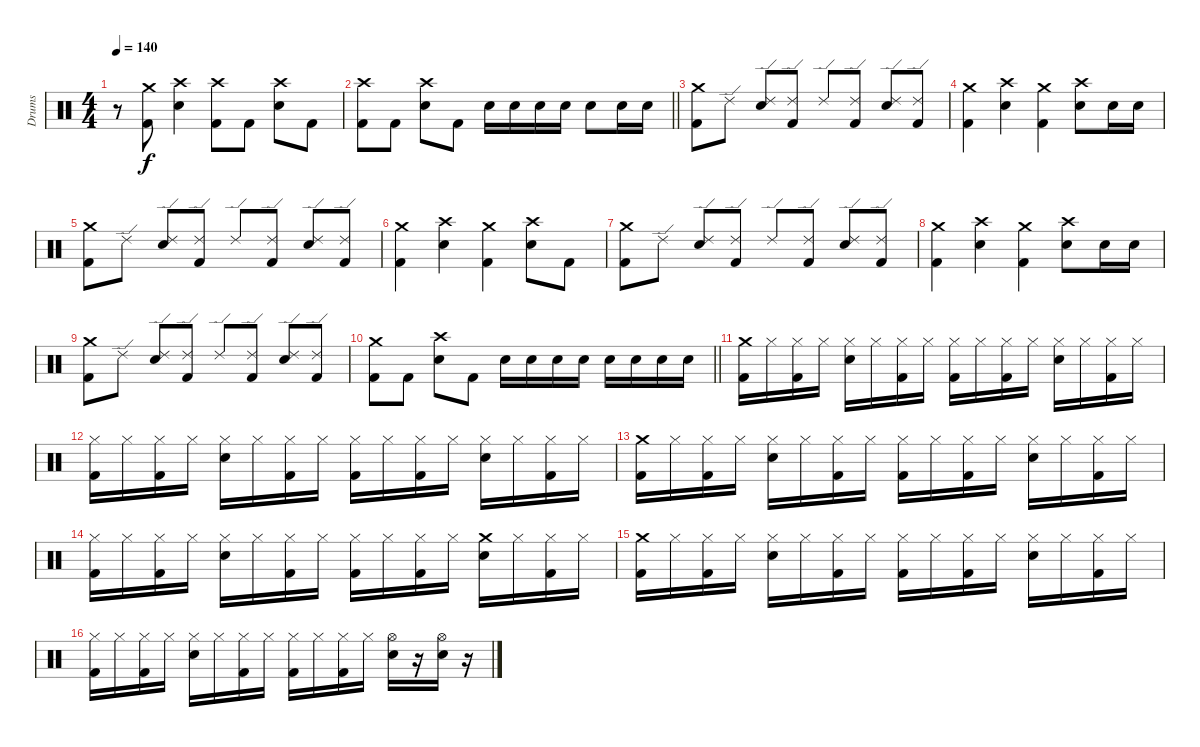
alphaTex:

\track ("Drums" "Drums") {instrument percussion}
\staff {score}
\articulation defaults
\ts (4 4)
\tempo 140
\clef neutral
\ks c
r.8{dy f} ("Crash medium (hit)" "Kick (hit) 2").8 ("Crash high (hit)" "Electric Snare (hit)").4 ("Crash high (hit)" "Kick (hit) 2").8 "Kick (hit) 2".8 ("Crash high (hit)" "Electric Snare (hit)").8 "Kick (hit) 2".8 |
\barLineRight lightlight
("Crash high (hit)" "Kick (hit) 2").8 "Kick (hit) 2".8 ("Crash high (hit)" "Electric Snare (hit)").8 "Kick (hit) 2".8 "Electric Snare (hit)".16 "Electric Snare (hit)".16 "Electric Snare (hit)".16 "Electric Snare (hit)".16 "Electric Snare (hit)".8 "Electric Snare (hit)".16 "Electric Snare (hit)".16 |
("Crash medium (hit)" "Kick (hit) 2").8 "Ride (edge) 2".8 ("Ride (edge) 2" "Electric Snare (hit)").8 ("Ride (edge) 2" "Kick (hit) 2").8 "Ride (edge) 2".8 ("Ride (edge) 2" "Kick (hit) 2").8 ("Ride (edge) 2" "Electric Snare (hit)").8 ("Ride (edge) 2" "Kick (hit) 2").8 |
("Crash medium (hit)" "Kick (hit) 2").4 ("Crash high (hit)" "Electric Snare (hit)").4 ("Crash medium (hit)" "Kick (hit) 2").4 ("Crash high (hit)" "Electric Snare (hit)").8 "Electric Snare (hit)".16 "Electric Snare (hit)".16 |
("Crash medium (hit)" "Kick (hit) 2").8 "Ride (edge) 2".8 ("Ride (edge) 2" "Electric Snare (hit)").8 ("Ride (edge) 2" "Kick (hit) 2").8 "Ride (edge) 2".8 ("Ride (edge) 2" "Kick (hit) 2").8 ("Ride (edge) 2" "Electric Snare (hit)").8 ("Ride (edge) 2" "Kick (hit) 2").8 |
("Crash medium (hit)" "Kick (hit) 2").4 ("Crash high (hit)" "Electric Snare (hit)").4 ("Crash medium (hit)" "Kick (hit) 2").4 ("Crash high (hit)" "Electric Snare (hit)").8 "Kick (hit) 2".8 |
("Crash medium (hit)" "Kick (hit) 2").8 "Ride (edge) 2".8 ("Ride (edge) 2" "Electric Snare (hit)").8 ("Ride (edge) 2" "Kick (hit) 2").8 "Ride (edge) 2".8 ("Ride (edge) 2" "Kick (hit) 2").8 ("Ride (edge) 2" "Electric Snare (hit)").8 ("Ride (edge) 2" "Kick (hit) 2").8 |
("Crash medium (hit)" "Kick (hit) 2").4 ("Crash high (hit)" "Electric Snare (hit)").4 ("Crash medium (hit)" "Kick (hit) 2").4 ("Crash high (hit)" "Electric Snare (hit)").8 "Electric Snare (hit)".16 "Electric Snare (hit)".16 |
("Crash medium (hit)" "Kick (hit) 2").8 "Ride (edge) 2".8 ("Ride (edge) 2" "Electric Snare (hit)").8 ("Ride (edge) 2" "Kick (hit) 2").8 "Ride (edge) 2".8 ("Ride (edge) 2" "Kick (hit) 2").8 ("Ride (edge) 2" "Electric Snare (hit)").8 ("Ride (edge) 2" "Kick (hit) 2").8 |
\barLineRight lightlight
("Crash medium (hit)" "Kick (hit) 2").8 "Kick (hit) 2".8 ("Crash high (hit)" "Electric Snare (hit)").8 "Kick (hit) 2".8 "Electric Snare (hit)".16 "Electric Snare (hit)".16 "Electric Snare (hit)".16 "Electric Snare (hit)".16 "Electric Snare (hit)".16 "Electric Snare (hit)".16 "Electric Snare (hit)".16 "Electric Snare (hit)".16 |
("Crash medium (hit)" "Kick (hit) 2").16 "Hi-Hat (closed)".16 ("Hi-Hat (closed)" "Kick (hit) 2").16 "Hi-Hat (closed)".16 ("Hi-Hat (closed)" "Electric Snare (hit)").16 "Hi-Hat (closed)".16 ("Hi-Hat (closed)" "Kick (hit) 2").16 "Hi-Hat (closed)".16 ("Hi-Hat (closed)" "Kick (hit) 2").16 "Hi-Hat (closed)".16 ("Hi-Hat (closed)" "Kick (hit) 2").16 "Hi-Hat (closed)".16 ("Hi-Hat (closed)" "Electric Snare (hit)").16 "Hi-Hat (closed)".16 ("Hi-Hat (closed)" "Kick (hit) 2").16 "Hi-Hat (closed)".16 |
("Hi-Hat (closed)" "Kick (hit) 2").16 "Hi-Hat (closed)".16 ("Hi-Hat (closed)" "Kick (hit) 2").16 "Hi-Hat (closed)".16 ("Hi-Hat (closed)" "Electric Snare (hit)").16 "Hi-Hat (closed)".16 ("Hi-Hat (closed)" "Kick (hit) 2").16 "Hi-Hat (closed)".16 ("Hi-Hat (closed)" "Kick (hit) 2").16 "Hi-Hat (closed)".16 ("Hi-Hat (closed)" "Kick (hit) 2").16 "Hi-Hat (closed)".16 ("Hi-Hat (closed)" "Electric Snare (hit)").16 "Hi-Hat (closed)".16 ("Hi-Hat (closed)" "Kick (hit) 2").16 "Hi-Hat (closed)".16 |
("Crash medium (hit)" "Kick (hit) 2").16 "Hi-Hat (closed)".16 ("Hi-Hat (closed)" "Kick (hit) 2").16 "Hi-Hat (closed)".16 ("Hi-Hat (closed)" "Electric Snare (hit)").16 "Hi-Hat (closed)".16 ("Hi-Hat (closed)" "Kick (hit) 2").16 "Hi-Hat (closed)".16 ("Hi-Hat (closed)" "Kick (hit) 2").16 "Hi-Hat (closed)".16 ("Hi-Hat (closed)" "Kick (hit) 2").16 "Hi-Hat (closed)".16 ("Hi-Hat (closed)" "Electric Snare (hit)").16 "Hi-Hat (closed)".16 ("Hi-Hat (closed)" "Kick (hit) 2").16 "Hi-Hat (closed)".16 |
("Hi-Hat (closed)" "Kick (hit) 2").16 "Hi-Hat (closed)".16 ("Hi-Hat (closed)" "Kick (hit) 2").16 "Hi-Hat (closed)".16 ("Hi-Hat (closed)" "Electric Snare (hit)").16 "Hi-Hat (closed)".16 ("Hi-Hat (closed)" "Kick (hit) 2").16 "Hi-Hat (closed)".16 ("Hi-Hat (closed)" "Kick (hit) 2").16 "Hi-Hat (closed)".16 ("Hi-Hat (closed)" "Kick (hit) 2").16 "Hi-Hat (closed)".16 ("Crash medium (hit)" "Electric Snare (hit)").16 "Hi-Hat (closed)".16 ("Hi-Hat (closed)" "Kick (hit) 2").16 "Hi-Hat (closed)".16 |
("Crash medium (hit)" "Kick (hit) 2").16 "Hi-Hat (closed)".16 ("Hi-Hat (closed)" "Kick (hit) 2").16 "Hi-Hat (closed)".16 ("Hi-Hat (closed)" "Electric Snare (hit)").16 "Hi-Hat (closed)".16 ("Hi-Hat (closed)" "Kick (hit) 2").16 "Hi-Hat (closed)".16 ("Hi-Hat (closed)" "Kick (hit) 2").16 "Hi-Hat (closed)".16 ("Hi-Hat (closed)" "Kick (hit) 2").16 "Hi-Hat (closed)".16 ("Hi-Hat (closed)" "Electric Snare (hit)").16 "Hi-Hat (closed)".16 ("Hi-Hat (closed)" "Kick (hit) 2").16 "Hi-Hat (closed)".16 |
("Hi-Hat (closed)" "Kick (hit) 2").16 "Hi-Hat (closed)".16 ("Hi-Hat (closed)" "Kick (hit) 2").16 "Hi-Hat (closed)".16 ("Hi-Hat (closed)" "Electric Snare (hit)").16 "Hi-Hat (closed)".16 ("Hi-Hat (closed)" "Kick (hit) 2").16 "Hi-Hat (closed)".16 ("Hi-Hat (closed)" "Kick (hit) 2").16 "Hi-Hat (closed)".16 ("Hi-Hat (closed)" "Kick (hit) 2").16 "Hi-Hat (closed)".16 ("Hi-Hat (open)" "Electric Snare (hit)").16 r.16 ("Hi-Hat (open)" "Electric Snare (hit)").16 r.16
